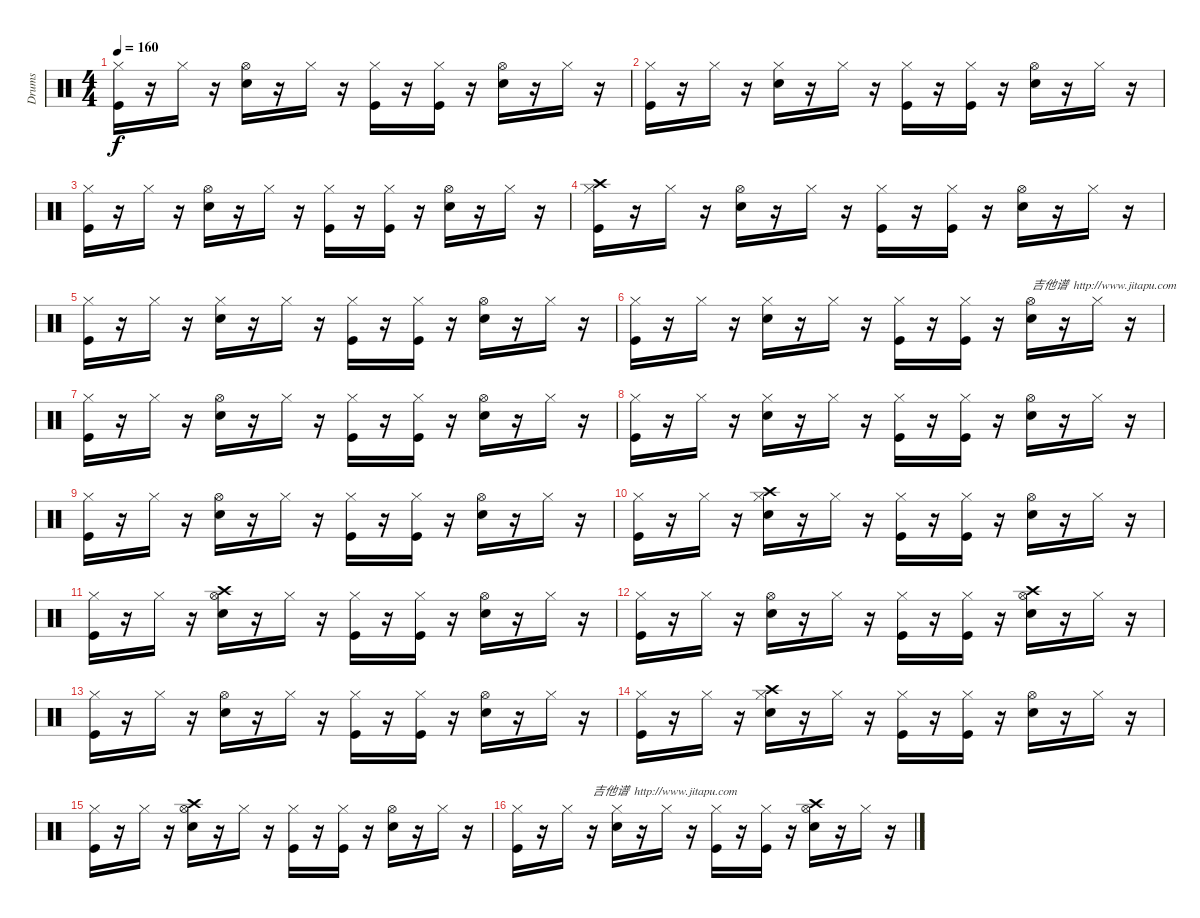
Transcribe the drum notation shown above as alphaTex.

\track ("Drums" "Drums") {instrument percussion}
\staff {score}
\articulation defaults
\ts (4 4)
\tempo 160
\clef neutral
\ks c
("Hi-Hat (closed)" "Kick (hit)").16{dy f} r.16 "Hi-Hat (closed)".16 r.16 ("Hi-Hat (open)" "Snare (hit) 2").16 r.16 "Hi-Hat (closed)".16 r.16 ("Hi-Hat (closed)" "Kick (hit)").16 r.16 ("Kick (hit)" "Hi-Hat (closed)").16 r.16 ("Hi-Hat (open)" "Snare (hit) 2").16 r.16 "Hi-Hat (closed)".16 r.16 |
("Hi-Hat (closed)" "Kick (hit)").16 r.16 "Hi-Hat (closed)".16 r.16 ("Hi-Hat (closed)" "Snare (hit) 2").16 r.16 "Hi-Hat (closed)".16 r.16 ("Hi-Hat (closed)" "Kick (hit)").16 r.16 ("Kick (hit)" "Hi-Hat (closed)").16 r.16 ("Hi-Hat (open)" "Snare (hit) 2").16 r.16 "Hi-Hat (closed)".16 r.16 |
("Hi-Hat (closed)" "Kick (hit)").16 r.16 "Hi-Hat (closed)".16 r.16 ("Hi-Hat (open)" "Snare (hit) 2").16 r.16 "Hi-Hat (closed)".16 r.16 ("Hi-Hat (closed)" "Kick (hit)").16 r.16 ("Kick (hit)" "Hi-Hat (closed)").16 r.16 ("Hi-Hat (open)" "Snare (hit) 2").16 r.16 "Hi-Hat (closed)".16 r.16 |
("Crash high (hit)" "Hi-Hat (closed)" "Kick (hit)").16 r.16 "Hi-Hat (closed)".16 r.16 ("Hi-Hat (open)" "Snare (hit) 2").16 r.16 "Hi-Hat (closed)".16 r.16 ("Hi-Hat (closed)" "Kick (hit)").16 r.16 ("Kick (hit)" "Hi-Hat (closed)").16 r.16 ("Hi-Hat (open)" "Snare (hit) 2").16 r.16 "Hi-Hat (closed)".16 r.16 |
("Hi-Hat (closed)" "Kick (hit)").16 r.16 "Hi-Hat (closed)".16 r.16 ("Hi-Hat (closed)" "Snare (hit) 2").16 r.16 "Hi-Hat (closed)".16 r.16 ("Hi-Hat (closed)" "Kick (hit)").16 r.16 ("Kick (hit)" "Hi-Hat (closed)").16 r.16 ("Hi-Hat (open)" "Snare (hit) 2").16 r.16 "Hi-Hat (closed)".16 r.16 |
("Hi-Hat (closed)" "Kick (hit)").16 r.16 "Hi-Hat (closed)".16 r.16 ("Hi-Hat (closed)" "Snare (hit) 2").16 r.16 "Hi-Hat (closed)".16 r.16 ("Hi-Hat (closed)" "Kick (hit)").16 r.16 ("Kick (hit)" "Hi-Hat (closed)").16 r.16 ("Hi-Hat (open)" "Snare (hit) 2").16{txt "吉他谱  http://www.jitapu.com"} r.16 "Hi-Hat (closed)".16 r.16 |
("Hi-Hat (closed)" "Kick (hit)").16 r.16 "Hi-Hat (closed)".16 r.16 ("Hi-Hat (open)" "Snare (hit) 2").16 r.16 "Hi-Hat (closed)".16 r.16 ("Hi-Hat (closed)" "Kick (hit)").16 r.16 ("Kick (hit)" "Hi-Hat (closed)").16 r.16 ("Hi-Hat (open)" "Snare (hit) 2").16 r.16 "Hi-Hat (closed)".16 r.16 |
("Hi-Hat (closed)" "Kick (hit)").16 r.16 "Hi-Hat (closed)".16 r.16 ("Hi-Hat (closed)" "Snare (hit) 2").16 r.16 "Hi-Hat (closed)".16 r.16 ("Hi-Hat (closed)" "Kick (hit)").16 r.16 ("Kick (hit)" "Hi-Hat (closed)").16 r.16 ("Hi-Hat (open)" "Snare (hit) 2").16 r.16 "Hi-Hat (closed)".16 r.16 |
("Hi-Hat (closed)" "Kick (hit)").16 r.16 "Hi-Hat (closed)".16 r.16 ("Hi-Hat (open)" "Snare (hit) 2").16 r.16 "Hi-Hat (closed)".16 r.16 ("Hi-Hat (closed)" "Kick (hit)").16 r.16 ("Kick (hit)" "Hi-Hat (closed)").16 r.16 ("Hi-Hat (open)" "Snare (hit) 2").16 r.16 "Hi-Hat (closed)".16 r.16 |
("Hi-Hat (closed)" "Kick (hit)").16 r.16 "Hi-Hat (closed)".16 r.16 ("Crash high (hit)" "Hi-Hat (closed)" "Snare (hit) 2").16 r.16 "Hi-Hat (closed)".16 r.16 ("Hi-Hat (closed)" "Kick (hit)").16 r.16 ("Kick (hit)" "Hi-Hat (closed)").16 r.16 ("Hi-Hat (open)" "Snare (hit) 2").16 r.16 "Hi-Hat (closed)".16 r.16 |
("Hi-Hat (closed)" "Kick (hit)").16 r.16 "Hi-Hat (closed)".16 r.16 ("Crash high (hit)" "Hi-Hat (open)" "Snare (hit) 2").16 r.16 "Hi-Hat (closed)".16 r.16 ("Hi-Hat (closed)" "Kick (hit)").16 r.16 ("Kick (hit)" "Hi-Hat (closed)").16 r.16 ("Hi-Hat (open)" "Snare (hit) 2").16 r.16 "Hi-Hat (closed)".16 r.16 |
("Hi-Hat (closed)" "Kick (hit)").16 r.16 "Hi-Hat (closed)".16 r.16 ("Hi-Hat (open)" "Snare (hit) 2").16 r.16 "Hi-Hat (closed)".16 r.16 ("Hi-Hat (closed)" "Kick (hit)").16 r.16 ("Kick (hit)" "Hi-Hat (closed)").16 r.16 ("Crash high (hit)" "Hi-Hat (open)" "Snare (hit) 2").16 r.16 "Hi-Hat (closed)".16 r.16 |
("Hi-Hat (closed)" "Kick (hit)").16 r.16 "Hi-Hat (closed)".16 r.16 ("Hi-Hat (open)" "Snare (hit) 2").16 r.16 "Hi-Hat (closed)".16 r.16 ("Hi-Hat (closed)" "Kick (hit)").16 r.16 ("Kick (hit)" "Hi-Hat (closed)").16 r.16 ("Hi-Hat (open)" "Snare (hit) 2").16 r.16 "Hi-Hat (closed)".16 r.16 |
("Hi-Hat (closed)" "Kick (hit)").16 r.16 "Hi-Hat (closed)".16 r.16 ("Crash high (hit)" "Hi-Hat (closed)" "Snare (hit) 2").16 r.16 "Hi-Hat (closed)".16 r.16 ("Hi-Hat (closed)" "Kick (hit)").16 r.16 ("Kick (hit)" "Hi-Hat (closed)").16 r.16 ("Hi-Hat (open)" "Snare (hit) 2").16 r.16 "Hi-Hat (closed)".16 r.16 |
("Hi-Hat (closed)" "Kick (hit)").16 r.16 "Hi-Hat (closed)".16 r.16 ("Crash high (hit)" "Hi-Hat (open)" "Snare (hit) 2").16 r.16 "Hi-Hat (closed)".16 r.16 ("Hi-Hat (closed)" "Kick (hit)").16 r.16 ("Kick (hit)" "Hi-Hat (closed)").16 r.16 ("Hi-Hat (open)" "Snare (hit) 2").16 r.16 "Hi-Hat (closed)".16 r.16 |
("Hi-Hat (closed)" "Kick (hit)").16 r.16 "Hi-Hat (closed)".16 r.16{txt "吉他谱  http://www.jitapu.com"} ("Hi-Hat (closed)" "Snare (hit) 2").16 r.16 "Hi-Hat (closed)".16 r.16 ("Hi-Hat (closed)" "Kick (hit)").16 r.16 ("Kick (hit)" "Hi-Hat (closed)").16 r.16 ("Crash high (hit)" "Hi-Hat (open)" "Snare (hit) 2").16 r.16 "Hi-Hat (closed)".16 r.16
